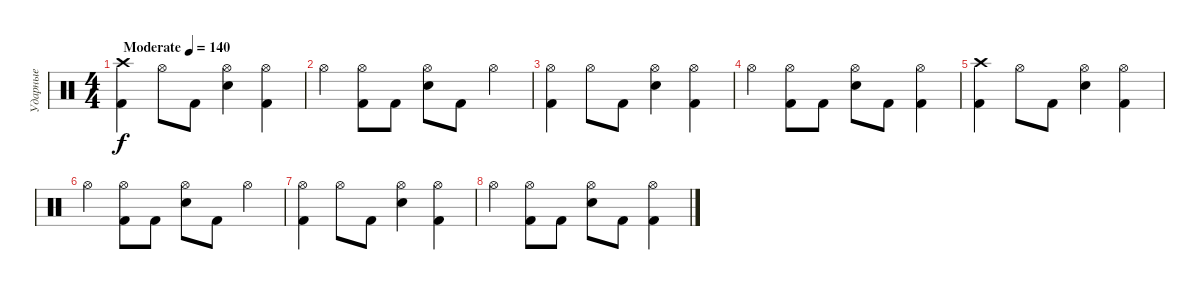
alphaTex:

\track ("Ударные" "Ударные") {instrument percussion}
\staff {score}
\articulation defaults
\ts (4 4)
\tempo (140 "Moderate")
\clef neutral
\ks c
("Crash high (hit)" "Kick (hit) 2").4{dy f} "Hi-Hat (open)".8 "Kick (hit) 2".8 ("Hi-Hat (open)" "Snare (hit) 2").4 ("Hi-Hat (open)" "Kick (hit) 2").4 |
"Hi-Hat (open)".4 ("Hi-Hat (open)" "Kick (hit) 2").8 "Kick (hit) 2".8 ("Hi-Hat (open)" "Snare (hit) 2").8 "Kick (hit) 2".8 "Hi-Hat (open)".4 |
("Hi-Hat (open)" "Kick (hit) 2").4 "Hi-Hat (open)".8 "Kick (hit) 2".8 ("Hi-Hat (open)" "Snare (hit) 2").4 ("Hi-Hat (open)" "Kick (hit) 2").4 |
"Hi-Hat (open)".4 ("Hi-Hat (open)" "Kick (hit) 2").8 "Kick (hit) 2".8 ("Hi-Hat (open)" "Snare (hit) 2").8 "Kick (hit) 2".8 ("Hi-Hat (open)" "Kick (hit) 2").4 |
("Crash high (hit)" "Kick (hit) 2").4 "Hi-Hat (open)".8 "Kick (hit) 2".8 ("Hi-Hat (open)" "Snare (hit) 2").4 ("Hi-Hat (open)" "Kick (hit) 2").4 |
"Hi-Hat (open)".4 ("Hi-Hat (open)" "Kick (hit) 2").8 "Kick (hit) 2".8 ("Hi-Hat (open)" "Snare (hit) 2").8 "Kick (hit) 2".8 "Hi-Hat (open)".4 |
("Hi-Hat (open)" "Kick (hit) 2").4 "Hi-Hat (open)".8 "Kick (hit) 2".8 ("Hi-Hat (open)" "Snare (hit) 2").4 ("Hi-Hat (open)" "Kick (hit) 2").4 |
"Hi-Hat (open)".4 ("Hi-Hat (open)" "Kick (hit) 2").8 "Kick (hit) 2".8 ("Hi-Hat (open)" "Snare (hit) 2").8 "Kick (hit) 2".8 ("Hi-Hat (open)" "Kick (hit) 2").4
